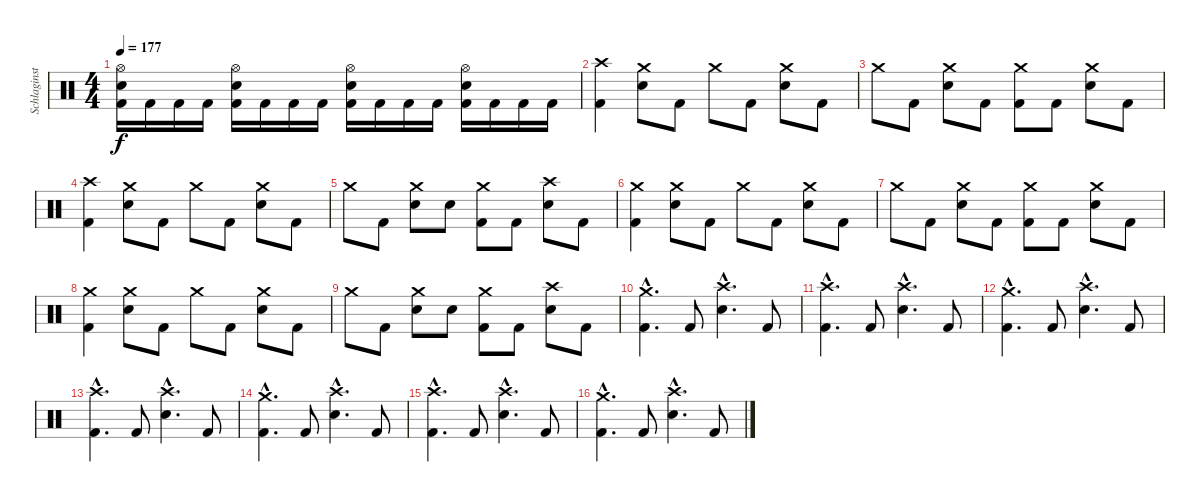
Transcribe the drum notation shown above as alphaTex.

\track ("Schlaginstrumente - Auswahl" "Schlaginst") {instrument percussion}
\staff {score}
\articulation defaults
\ts (4 4)
\tempo 177
\clef neutral
\ks c
("Hi-Hat (open)" "Snare (hit) 2" "Kick (hit) 2").16{dy f} "Kick (hit) 2".16 "Kick (hit) 2".16 "Kick (hit) 2".16 ("Hi-Hat (open)" "Snare (hit) 2" "Kick (hit) 2").16 "Kick (hit) 2".16 "Kick (hit) 2".16 "Kick (hit) 2".16 ("Hi-Hat (open)" "Snare (hit) 2" "Kick (hit) 2").16 "Kick (hit) 2".16 "Kick (hit) 2".16 "Kick (hit) 2".16 ("Hi-Hat (open)" "Snare (hit) 2" "Kick (hit) 2").16 "Kick (hit) 2".16 "Kick (hit) 2".16 "Kick (hit) 2".16 |
("Crash high (hit)" "Kick (hit) 2").4 ("Crash medium (hit)" "Snare (hit) 2").8 "Kick (hit) 2".8 "Crash medium (hit)".8 "Kick (hit) 2".8 ("Crash medium (hit)" "Snare (hit) 2").8 "Kick (hit) 2".8 |
"Crash medium (hit)".8 "Kick (hit) 2".8 ("Crash medium (hit)" "Snare (hit) 2").8 "Kick (hit) 2".8 ("Kick (hit) 2" "Crash medium (hit)").8 "Kick (hit) 2".8 ("Crash medium (hit)" "Snare (hit) 2").8 "Kick (hit) 2".8 |
("Crash high (hit)" "Kick (hit) 2").4 ("Crash medium (hit)" "Snare (hit) 2").8 "Kick (hit) 2".8 "Crash medium (hit)".8 "Kick (hit) 2".8 ("Crash medium (hit)" "Snare (hit) 2").8 "Kick (hit) 2".8 |
"Crash medium (hit)".8 "Kick (hit) 2".8 ("Crash medium (hit)" "Snare (hit) 2").8 "Snare (hit) 2".8 ("Kick (hit) 2" "Crash medium (hit)").8 "Kick (hit) 2".8 ("Crash high (hit)" "Snare (hit) 2").8 "Kick (hit) 2".8 |
("Crash medium (hit)" "Kick (hit) 2").4 ("Crash medium (hit)" "Snare (hit) 2").8 "Kick (hit) 2".8 "Crash medium (hit)".8 "Kick (hit) 2".8 ("Crash medium (hit)" "Snare (hit) 2").8 "Kick (hit) 2".8 |
"Crash medium (hit)".8 "Kick (hit) 2".8 ("Crash medium (hit)" "Snare (hit) 2").8 "Kick (hit) 2".8 ("Kick (hit) 2" "Crash medium (hit)").8 "Kick (hit) 2".8 ("Crash medium (hit)" "Snare (hit) 2").8 "Kick (hit) 2".8 |
("Crash medium (hit)" "Kick (hit) 2").4 ("Crash medium (hit)" "Snare (hit) 2").8 "Kick (hit) 2".8 "Crash medium (hit)".8 "Kick (hit) 2".8 ("Crash medium (hit)" "Snare (hit) 2").8 "Kick (hit) 2".8 |
"Crash medium (hit)".8 "Kick (hit) 2".8 ("Crash medium (hit)" "Snare (hit) 2").8 "Snare (hit) 2".8 ("Kick (hit) 2" "Crash medium (hit)").8 "Kick (hit) 2".8 ("Crash high (hit)" "Snare (hit) 2").8 "Kick (hit) 2".8 |
("Crash medium (hit)"{hac} "Kick (hit) 2"{hac}).4{d} "Kick (hit) 2".8 ("Crash high (hit)"{hac} "Snare (hit) 2"{hac}).4{d} "Kick (hit) 2".8 |
("Crash high (hit)"{hac} "Kick (hit) 2"{hac}).4{d} "Kick (hit) 2".8 ("Crash high (hit)"{hac} "Snare (hit) 2"{hac}).4{d} "Kick (hit) 2".8 |
("Crash medium (hit)"{hac} "Kick (hit) 2"{hac}).4{d} "Kick (hit) 2".8 ("Crash high (hit)"{hac} "Snare (hit) 2"{hac}).4{d} "Kick (hit) 2".8 |
("Crash high (hit)"{hac} "Kick (hit) 2"{hac}).4{d} "Kick (hit) 2".8 ("Crash high (hit)"{hac} "Snare (hit) 2"{hac}).4{d} "Kick (hit) 2".8 |
("Crash medium (hit)"{hac} "Kick (hit) 2"{hac}).4{d} "Kick (hit) 2".8 ("Crash high (hit)"{hac} "Snare (hit) 2"{hac}).4{d} "Kick (hit) 2".8 |
("Crash high (hit)"{hac} "Kick (hit) 2"{hac}).4{d} "Kick (hit) 2".8 ("Crash high (hit)"{hac} "Snare (hit) 2"{hac}).4{d} "Kick (hit) 2".8 |
("Crash medium (hit)"{hac} "Kick (hit) 2"{hac}).4{d} "Kick (hit) 2".8 ("Crash high (hit)"{hac} "Snare (hit) 2"{hac}).4{d} "Kick (hit) 2".8
